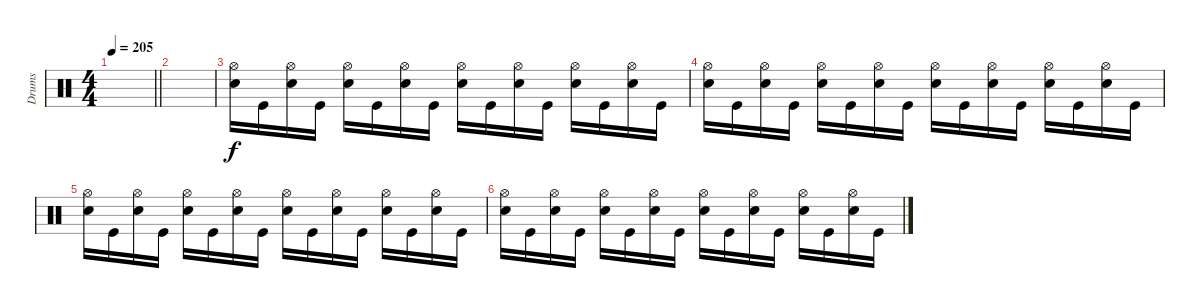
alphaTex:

\track ("Drums" "Drums") {instrument percussion}
\staff
\articulation defaults
\ts (4 4)
\tempo 205
\clef neutral
\barLineRight lightlight
\ks c
|
|
("Hi-Hat (open)" "Electric Snare (hit)").16 "Kick (hit)".16 ("Hi-Hat (open)" "Electric Snare (hit)").16 "Kick (hit)".16 ("Hi-Hat (open)" "Electric Snare (hit)").16 "Kick (hit)".16 ("Hi-Hat (open)" "Electric Snare (hit)").16 "Kick (hit)".16 ("Hi-Hat (open)" "Electric Snare (hit)").16 "Kick (hit)".16 ("Hi-Hat (open)" "Electric Snare (hit)").16 "Kick (hit)".16 ("Hi-Hat (open)" "Electric Snare (hit)").16 "Kick (hit)".16 ("Hi-Hat (open)" "Electric Snare (hit)").16 "Kick (hit)".16 |
("Hi-Hat (open)" "Electric Snare (hit)").16 "Kick (hit)".16 ("Hi-Hat (open)" "Electric Snare (hit)").16 "Kick (hit)".16 ("Hi-Hat (open)" "Electric Snare (hit)").16 "Kick (hit)".16 ("Hi-Hat (open)" "Electric Snare (hit)").16 "Kick (hit)".16 ("Hi-Hat (open)" "Electric Snare (hit)").16 "Kick (hit)".16 ("Hi-Hat (open)" "Electric Snare (hit)").16 "Kick (hit)".16 ("Hi-Hat (open)" "Electric Snare (hit)").16 "Kick (hit)".16 ("Hi-Hat (open)" "Electric Snare (hit)").16 "Kick (hit)".16 |
("Hi-Hat (open)" "Electric Snare (hit)").16 "Kick (hit)".16 ("Hi-Hat (open)" "Electric Snare (hit)").16 "Kick (hit)".16 ("Hi-Hat (open)" "Electric Snare (hit)").16 "Kick (hit)".16 ("Hi-Hat (open)" "Electric Snare (hit)").16 "Kick (hit)".16 ("Hi-Hat (open)" "Electric Snare (hit)").16 "Kick (hit)".16 ("Hi-Hat (open)" "Electric Snare (hit)").16 "Kick (hit)".16 ("Hi-Hat (open)" "Electric Snare (hit)").16 "Kick (hit)".16 ("Hi-Hat (open)" "Electric Snare (hit)").16 "Kick (hit)".16 |
("Hi-Hat (open)" "Electric Snare (hit)").16 "Kick (hit)".16 ("Hi-Hat (open)" "Electric Snare (hit)").16 "Kick (hit)".16 ("Hi-Hat (open)" "Electric Snare (hit)").16 "Kick (hit)".16 ("Hi-Hat (open)" "Electric Snare (hit)").16 "Kick (hit)".16 ("Hi-Hat (open)" "Electric Snare (hit)").16 "Kick (hit)".16 ("Hi-Hat (open)" "Electric Snare (hit)").16 "Kick (hit)".16 ("Hi-Hat (open)" "Electric Snare (hit)").16 "Kick (hit)".16 ("Hi-Hat (open)" "Electric Snare (hit)").16 "Kick (hit)".16
